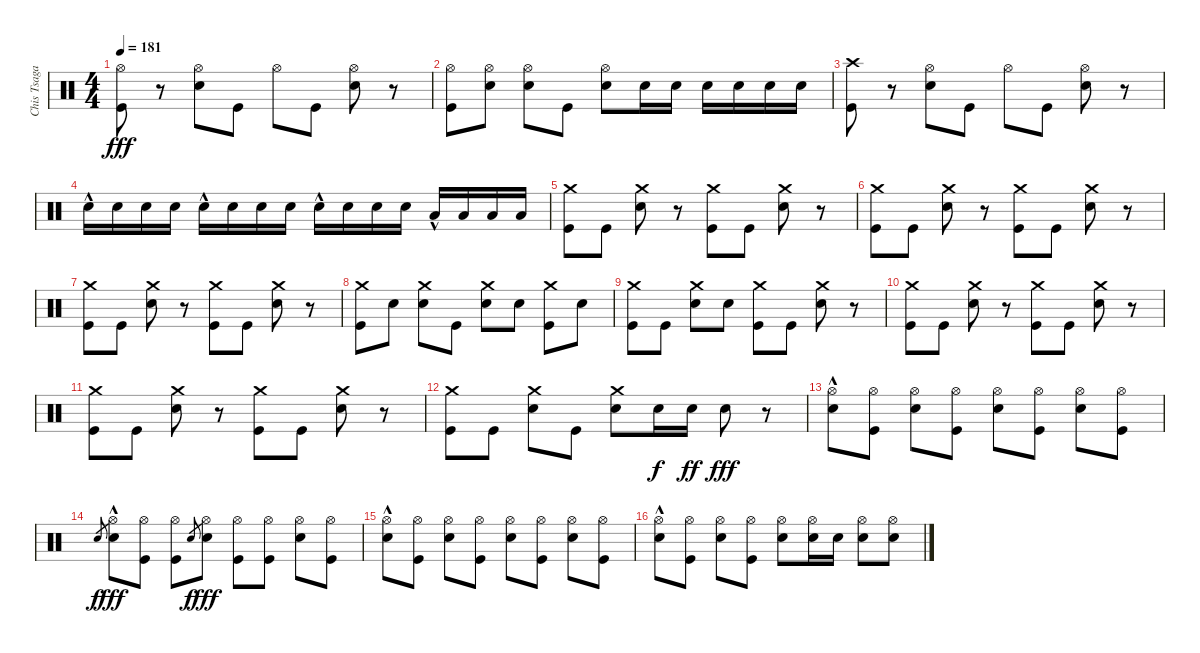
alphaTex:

\track ("Chis Tsagakis" "Chis Tsaga") {instrument percussion}
\staff {score}
\articulation defaults
\ts (4 4)
\tempo 181
\clef neutral
\ks c
("Hi-Hat (open)" "Kick (hit)").8{dy fff} r.8 ("Hi-Hat (open)" "Electric Snare (hit)").8 "Kick (hit)".8 "Hi-Hat (open)".8 "Kick (hit)".8 ("Hi-Hat (open)" "Electric Snare (hit)").8 r.8 |
("Hi-Hat (open)" "Kick (hit)").8 ("Hi-Hat (open)" "Electric Snare (hit)").8 ("Hi-Hat (open)" "Electric Snare (hit)").8 "Kick (hit)".8 ("Hi-Hat (open)" "Electric Snare (hit)").8 "Electric Snare (hit)".16 "Electric Snare (hit)".16 "Electric Snare (hit)".16 "Electric Snare (hit)".16 "Electric Snare (hit)".16 "Electric Snare (hit)".16 |
("Crash high (hit)" "Kick (hit)").8 r.8 ("Hi-Hat (open)" "Electric Snare (hit)").8 "Kick (hit)".8 "Hi-Hat (open)".8 "Kick (hit)".8 ("Hi-Hat (open)" "Electric Snare (hit)").8 r.8 |
"Electric Snare (hit)"{hac}.16 "Electric Snare (hit)".16 "Electric Snare (hit)".16 "Electric Snare (hit)".16 "Electric Snare (hit)"{hac}.16 "Electric Snare (hit)".16 "Electric Snare (hit)".16 "Electric Snare (hit)".16 "Electric Snare (hit)"{hac}.16 "Electric Snare (hit)".16 "Electric Snare (hit)".16 "Electric Snare (hit)".16 "Low Floor Tom (hit)"{hac}.16 "Low Floor Tom (hit)".16 "Low Floor Tom (hit)".16 "Low Floor Tom (hit)".16 |
("Crash medium (hit)" "Kick (hit)").8 "Kick (hit)".8 ("Crash medium (hit)" "Electric Snare (hit)").8 r.8 ("Crash medium (hit)" "Kick (hit)").8 "Kick (hit)".8 ("Crash medium (hit)" "Electric Snare (hit)").8 r.8 |
("Crash medium (hit)" "Kick (hit)").8 "Kick (hit)".8 ("Crash medium (hit)" "Electric Snare (hit)").8 r.8 ("Crash medium (hit)" "Kick (hit)").8 "Kick (hit)".8 ("Crash medium (hit)" "Electric Snare (hit)").8 r.8 |
("Crash medium (hit)" "Kick (hit)").8 "Kick (hit)".8 ("Crash medium (hit)" "Electric Snare (hit)").8 r.8 ("Crash medium (hit)" "Kick (hit)").8 "Kick (hit)".8 ("Crash medium (hit)" "Electric Snare (hit)").8 r.8 |
("Crash medium (hit)" "Kick (hit)").8 "Electric Snare (hit)".8 ("Crash medium (hit)" "Electric Snare (hit)").8 "Kick (hit)".8 ("Crash medium (hit)" "Electric Snare (hit)").8 "Electric Snare (hit)".8 ("Crash medium (hit)" "Kick (hit)").8 "Electric Snare (hit)".8 |
("Crash medium (hit)" "Kick (hit)").8 "Kick (hit)".8 ("Crash medium (hit)" "Electric Snare (hit)").8 "Electric Snare (hit)".8 ("Crash medium (hit)" "Kick (hit)").8 "Kick (hit)".8 ("Crash medium (hit)" "Electric Snare (hit)").8 r.8 |
("Crash medium (hit)" "Kick (hit)").8 "Kick (hit)".8 ("Crash medium (hit)" "Electric Snare (hit)").8 r.8 ("Crash medium (hit)" "Kick (hit)").8 "Kick (hit)".8 ("Crash medium (hit)" "Electric Snare (hit)").8 r.8 |
("Crash medium (hit)" "Kick (hit)").8 "Kick (hit)".8 ("Crash medium (hit)" "Electric Snare (hit)").8 r.8 ("Crash medium (hit)" "Kick (hit)").8 "Kick (hit)".8 ("Crash medium (hit)" "Electric Snare (hit)").8 r.8 |
("Crash medium (hit)" "Kick (hit)").8 "Kick (hit)".8 ("Crash medium (hit)" "Electric Snare (hit)").8 "Kick (hit)".8 ("Crash medium (hit)" "Electric Snare (hit)").8 "Electric Snare (hit)".16{dy f} "Electric Snare (hit)".16{dy ff} "Electric Snare (hit)".8{dy fff} r.8 |
("Hi-Hat (open)"{hac} "Electric Snare (hit)").8 ("Hi-Hat (open)" "Kick (hit)").8 ("Hi-Hat (open)" "Electric Snare (hit)").8 ("Hi-Hat (open)" "Kick (hit)").8 ("Hi-Hat (open)" "Electric Snare (hit)").8 ("Hi-Hat (open)" "Kick (hit)").8 ("Hi-Hat (open)" "Electric Snare (hit)").8 ("Hi-Hat (open)" "Kick (hit)").8 |
"Electric Snare (hit)".8{gr dy f} ("Hi-Hat (open)"{hac} "Electric Snare (hit)").8{dy fff} ("Hi-Hat (open)" "Kick (hit)").8 ("Hi-Hat (open)" "Kick (hit)").8 "Electric Snare (hit)".8{gr dy f} ("Hi-Hat (open)" "Electric Snare (hit)").8{dy fff} ("Hi-Hat (open)" "Kick (hit)").8 ("Hi-Hat (open)" "Kick (hit)").8 ("Hi-Hat (open)" "Electric Snare (hit)").8 ("Hi-Hat (open)" "Kick (hit)").8 |
("Hi-Hat (open)"{hac} "Electric Snare (hit)").8 ("Hi-Hat (open)" "Kick (hit)").8 ("Hi-Hat (open)" "Electric Snare (hit)").8 ("Hi-Hat (open)" "Kick (hit)").8 ("Hi-Hat (open)" "Electric Snare (hit)").8 ("Hi-Hat (open)" "Kick (hit)").8 ("Hi-Hat (open)" "Electric Snare (hit)").8 ("Hi-Hat (open)" "Kick (hit)").8 |
("Hi-Hat (open)"{hac} "Electric Snare (hit)").8 ("Hi-Hat (open)" "Kick (hit)").8 ("Hi-Hat (open)" "Electric Snare (hit)").8 ("Hi-Hat (open)" "Kick (hit)").8 ("Hi-Hat (open)" "Electric Snare (hit)").8 ("Hi-Hat (open)" "Electric Snare (hit)").16 "Electric Snare (hit)".16 ("Hi-Hat (open)" "Electric Snare (hit)").8 ("Hi-Hat (open)" "Electric Snare (hit)").8
